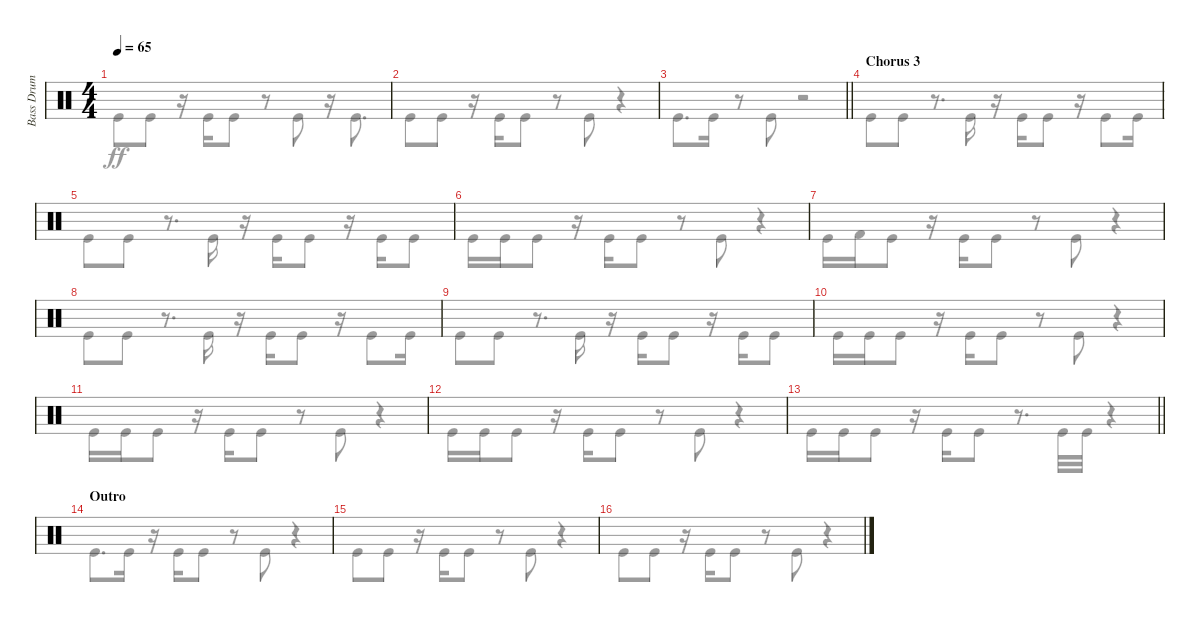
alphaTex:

\track ("Bass Drum" "Bass Drum") {instrument percussion}
\staff {score}
\articulation defaults
\voice
\ts (4 4)
\tempo 65
\clef neutral
\ks c
|
|
\barLineRight lightlight
|
\section ("" "Chorus 3")
|
|
|
|
|
|
|
|
|
\barLineRight lightlight
|
\section ("" "Outro")
|
|
\voice
\clef neutral
\ks c "Kick (hit)".8{dy ff} "Kick (hit)".8
r.16 "Kick (hit)".16 "Kick (hit)".8 r.8 "Kick (hit)".8 r.16 "Kick (hit)".8{d} |
"Kick (hit)".8 "Kick (hit)".8 r.16 "Kick (hit)".16 "Kick (hit)".8 r.8 "Kick (hit)".8 r.4 |
\barLineRight lightlight "Kick (hit)".8{d} "Kick (hit)".16
r.8 "Kick (hit)".8 r.2 |
"Kick (hit)".8 "Kick (hit)".8 r.8{d} "Kick (hit)".16 r.16 "Kick (hit)".16 "Kick (hit)".8 r.16 "Kick (hit)".8 "Kick (hit)".16 |
"Kick (hit)".8 "Kick (hit)".8 r.8{d} "Kick (hit)".16 r.16 "Kick (hit)".16 "Kick (hit)".8 r.16 "Kick (hit)".16 "Kick (hit)".8 |
"Kick (hit)".16 "Kick (hit)".16 "Kick (hit)".8 r.16 "Kick (hit)".16 "Kick (hit)".8 r.8 "Kick (hit)".8 r.4 |
"Kick (hit)".16 "Kick (hit) 2".16 "Kick (hit)".8 r.16 "Kick (hit)".16 "Kick (hit)".8 r.8 "Kick (hit)".8 r.4 |
"Kick (hit)".8 "Kick (hit)".8 r.8{d} "Kick (hit)".16 r.16 "Kick (hit)".16 "Kick (hit)".8 r.16 "Kick (hit)".8 "Kick (hit)".16 |
"Kick (hit)".8 "Kick (hit)".8 r.8{d} "Kick (hit)".16 r.16 "Kick (hit)".16 "Kick (hit)".8 r.16 "Kick (hit)".16 "Kick (hit)".8 |
"Kick (hit)".16 "Kick (hit)".16 "Kick (hit)".8 r.16 "Kick (hit)".16 "Kick (hit)".8 r.8 "Kick (hit)".8 r.4 |
"Kick (hit)".16 "Kick (hit)".16 "Kick (hit)".8 r.16 "Kick (hit)".16 "Kick (hit)".8 r.8 "Kick (hit)".8 r.4 |
"Kick (hit)".16 "Kick (hit)".16 "Kick (hit)".8 r.16 "Kick (hit)".16 "Kick (hit)".8 r.8 "Kick (hit)".8 r.4 |
\barLineRight lightlight "Kick (hit)".16 "Kick (hit)".16 "Kick (hit)".8
r.16 "Kick (hit)".16 "Kick (hit)".8 r.8{d} "Kick (hit)".32 "Kick (hit)".32 r.4 |
"Kick (hit)".8{d} "Kick (hit)".16 r.16 "Kick (hit)".16 "Kick (hit)".8 r.8 "Kick (hit)".8 r.4 |
"Kick (hit)".8 "Kick (hit)".8 r.16 "Kick (hit)".16 "Kick (hit)".8 r.8 "Kick (hit)".8 r.4 |
"Kick (hit)".8 "Kick (hit)".8 r.16 "Kick (hit)".16 "Kick (hit)".8 r.8 "Kick (hit)".8 r.4
